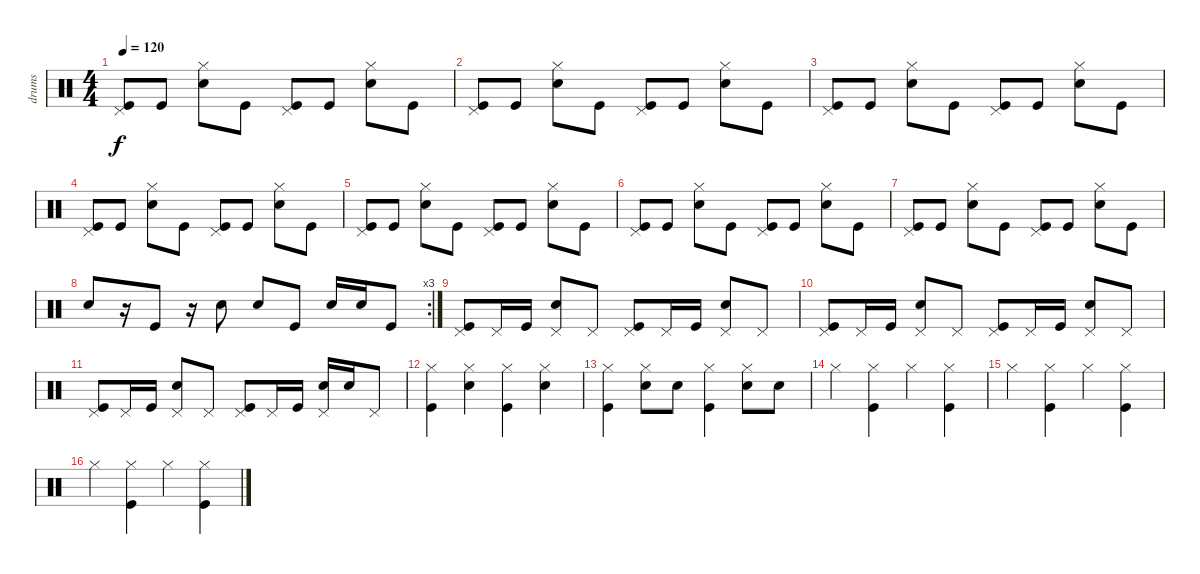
\track ("drums" "drums") {instrument percussion}
\staff {score}
\articulation defaults
\ts (4 4)
\tempo 120
\clef neutral
\ks c
("Pedal Hi-Hat (hit)" "Kick (hit)").8{dy f} "Kick (hit)".8 ("Hi-Hat (closed)" "Snare (hit) 2").8 "Kick (hit)".8 ("Pedal Hi-Hat (hit)" "Kick (hit)").8 "Kick (hit)".8 ("Hi-Hat (closed)" "Snare (hit) 2").8 "Kick (hit)".8 |
("Pedal Hi-Hat (hit)" "Kick (hit)").8 "Kick (hit)".8 ("Hi-Hat (closed)" "Snare (hit) 2").8 "Kick (hit)".8 ("Pedal Hi-Hat (hit)" "Kick (hit)").8 "Kick (hit)".8 ("Hi-Hat (closed)" "Snare (hit) 2").8 "Kick (hit)".8 |
("Pedal Hi-Hat (hit)" "Kick (hit)").8 "Kick (hit)".8 ("Hi-Hat (closed)" "Snare (hit) 2").8 "Kick (hit)".8 ("Pedal Hi-Hat (hit)" "Kick (hit)").8 "Kick (hit)".8 ("Hi-Hat (closed)" "Snare (hit) 2").8 "Kick (hit)".8 |
("Pedal Hi-Hat (hit)" "Kick (hit)").8 "Kick (hit)".8 ("Hi-Hat (closed)" "Snare (hit) 2").8 "Kick (hit)".8 ("Pedal Hi-Hat (hit)" "Kick (hit)").8 "Kick (hit)".8 ("Hi-Hat (closed)" "Snare (hit) 2").8 "Kick (hit)".8 |
("Pedal Hi-Hat (hit)" "Kick (hit)").8 "Kick (hit)".8 ("Hi-Hat (closed)" "Snare (hit) 2").8 "Kick (hit)".8 ("Pedal Hi-Hat (hit)" "Kick (hit)").8 "Kick (hit)".8 ("Hi-Hat (closed)" "Snare (hit) 2").8 "Kick (hit)".8 |
("Pedal Hi-Hat (hit)" "Kick (hit)").8 "Kick (hit)".8 ("Hi-Hat (closed)" "Snare (hit) 2").8 "Kick (hit)".8 ("Pedal Hi-Hat (hit)" "Kick (hit)").8 "Kick (hit)".8 ("Hi-Hat (closed)" "Snare (hit) 2").8 "Kick (hit)".8 |
("Pedal Hi-Hat (hit)" "Kick (hit)").8 "Kick (hit)".8 ("Hi-Hat (closed)" "Snare (hit) 2").8 "Kick (hit)".8 ("Pedal Hi-Hat (hit)" "Kick (hit)").8 "Kick (hit)".8 ("Hi-Hat (closed)" "Snare (hit) 2").8 "Kick (hit)".8 |
\rc 3 "Snare (hit) 2".8
r.16 "Kick (hit)".8 r.16 "Snare (hit) 2".8 "Snare (hit) 2".8 "Kick (hit)".8 "Snare (hit) 2".16 "Snare (hit) 2".16 "Kick (hit)".8 |
("Pedal Hi-Hat (hit)" "Kick (hit)").8 "Pedal Hi-Hat (hit)".16 "Kick (hit)".16 ("Pedal Hi-Hat (hit)" "Snare (hit) 2").8 "Pedal Hi-Hat (hit)".8 ("Pedal Hi-Hat (hit)" "Kick (hit)").8 "Pedal Hi-Hat (hit)".16 "Kick (hit)".16 ("Pedal Hi-Hat (hit)" "Snare (hit) 2").8 "Pedal Hi-Hat (hit)".8 |
("Pedal Hi-Hat (hit)" "Kick (hit)").8 "Pedal Hi-Hat (hit)".16 "Kick (hit)".16 ("Pedal Hi-Hat (hit)" "Snare (hit) 2").8 "Pedal Hi-Hat (hit)".8 ("Pedal Hi-Hat (hit)" "Kick (hit)").8 "Pedal Hi-Hat (hit)".16 "Kick (hit)".16 ("Pedal Hi-Hat (hit)" "Snare (hit) 2").8 "Pedal Hi-Hat (hit)".8 |
("Pedal Hi-Hat (hit)" "Kick (hit)").8 "Pedal Hi-Hat (hit)".16 "Kick (hit)".16 ("Pedal Hi-Hat (hit)" "Snare (hit) 2").8 "Pedal Hi-Hat (hit)".8 ("Pedal Hi-Hat (hit)" "Kick (hit)").8 "Pedal Hi-Hat (hit)".16 "Kick (hit)".16 ("Pedal Hi-Hat (hit)" "Snare (hit) 2").16 "Snare (hit) 2".16 "Pedal Hi-Hat (hit)".8 |
("Hi-Hat (closed)" "Kick (hit)").4 ("Hi-Hat (closed)" "Snare (hit) 2").4 ("Hi-Hat (closed)" "Kick (hit)").4 ("Hi-Hat (closed)" "Snare (hit) 2").4 |
("Hi-Hat (closed)" "Kick (hit)").4 ("Hi-Hat (closed)" "Snare (hit) 2").8 "Snare (hit) 2".8 ("Hi-Hat (closed)" "Kick (hit)").4 ("Hi-Hat (closed)" "Snare (hit) 2").8 "Snare (hit) 2".8 |
"Hi-Hat (closed)".4 ("Hi-Hat (closed)" "Kick (hit)").4 "Hi-Hat (closed)".4 ("Hi-Hat (closed)" "Kick (hit)").4 |
"Hi-Hat (closed)".4 ("Hi-Hat (closed)" "Kick (hit)").4 "Hi-Hat (closed)".4 ("Hi-Hat (closed)" "Kick (hit)").4 |
"Hi-Hat (closed)".4 ("Hi-Hat (closed)" "Kick (hit)").4 "Hi-Hat (closed)".4 ("Hi-Hat (closed)" "Kick (hit)").4
